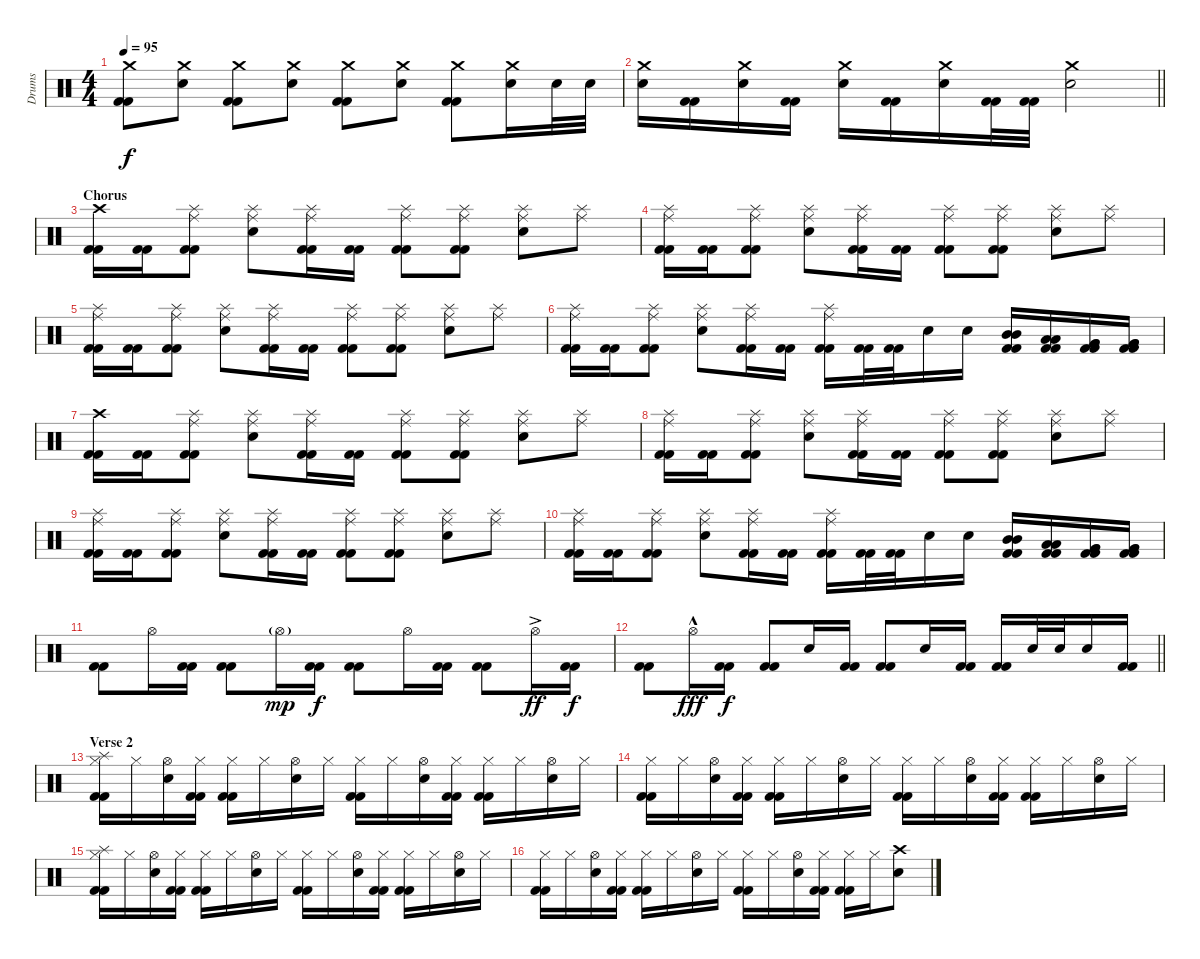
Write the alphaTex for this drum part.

\track ("Drums" "Drums") {instrument percussion}
\staff {score}
\articulation defaults
\ts (4 4)
\tempo 95
\clef neutral
\ks c
("Crash medium (hit)" "Kick (hit) 2" "Kick (hit) 2").8{dy f} ("Crash medium (hit)" "Electric Snare (hit)").8 ("Crash medium (hit)" "Kick (hit) 2" "Kick (hit) 2").8 ("Crash medium (hit)" "Electric Snare (hit)").8 ("Crash medium (hit)" "Kick (hit) 2" "Kick (hit) 2").8 ("Crash medium (hit)" "Electric Snare (hit)").8 ("Crash medium (hit)" "Kick (hit) 2" "Kick (hit) 2").8 ("Crash medium (hit)" "Electric Snare (hit)").16 "Electric Snare (hit)".32 "Electric Snare (hit)".32 |
\barLineRight lightlight
("Crash medium (hit)" "Electric Snare (hit)").16 ("Kick (hit) 2" "Kick (hit) 2").16 ("Crash medium (hit)" "Electric Snare (hit)").16 ("Kick (hit) 2" "Kick (hit) 2").16 ("Crash medium (hit)" "Electric Snare (hit)").16 ("Kick (hit) 2" "Kick (hit) 2").16 ("Crash medium (hit)" "Electric Snare (hit)").16 ("Kick (hit) 2" "Kick (hit) 2").32 ("Kick (hit) 2" "Kick (hit) 2").32 ("Crash medium (hit)" "Electric Snare (hit)").2 |
\section ("" "Chorus")
("Crash high (hit)" "Kick (hit) 2" "Kick (hit) 2").16 ("Kick (hit) 2" "Kick (hit) 2").16 ("Ride (middle)" "Splash (hit)" "Kick (hit) 2" "Kick (hit) 2").8 ("Ride (middle)" "Splash (hit)" "Electric Snare (hit)").8 ("Ride (middle)" "Splash (hit)" "Kick (hit) 2" "Kick (hit) 2").16 ("Kick (hit) 2" "Kick (hit) 2").16 ("Ride (middle)" "Splash (hit)" "Kick (hit) 2" "Kick (hit) 2").8 ("Ride (middle)" "Splash (hit)" "Kick (hit) 2" "Kick (hit) 2").8 ("Ride (middle)" "Splash (hit)" "Electric Snare (hit)").8 ("Ride (middle)" "Splash (hit)").8 |
("Ride (middle)" "Splash (hit)" "Kick (hit) 2" "Kick (hit) 2").16 ("Kick (hit) 2" "Kick (hit) 2").16 ("Ride (middle)" "Splash (hit)" "Kick (hit) 2" "Kick (hit) 2").8 ("Ride (middle)" "Splash (hit)" "Electric Snare (hit)").8 ("Ride (middle)" "Splash (hit)" "Kick (hit) 2" "Kick (hit) 2").16 ("Kick (hit) 2" "Kick (hit) 2").16 ("Ride (middle)" "Splash (hit)" "Kick (hit) 2" "Kick (hit) 2").8 ("Ride (middle)" "Splash (hit)" "Kick (hit) 2" "Kick (hit) 2").8 ("Ride (middle)" "Splash (hit)" "Electric Snare (hit)").8 ("Ride (middle)" "Splash (hit)").8 |
("Ride (middle)" "Splash (hit)" "Kick (hit) 2" "Kick (hit) 2").16 ("Kick (hit) 2" "Kick (hit) 2").16 ("Ride (middle)" "Splash (hit)" "Kick (hit) 2" "Kick (hit) 2").8 ("Ride (middle)" "Splash (hit)" "Electric Snare (hit)").8 ("Ride (middle)" "Splash (hit)" "Kick (hit) 2" "Kick (hit) 2").16 ("Kick (hit) 2" "Kick (hit) 2").16 ("Ride (middle)" "Splash (hit)" "Kick (hit) 2" "Kick (hit) 2").8 ("Ride (middle)" "Splash (hit)" "Kick (hit) 2" "Kick (hit) 2").8 ("Ride (middle)" "Splash (hit)" "Electric Snare (hit)").8 ("Ride (middle)" "Splash (hit)").8 |
("Ride (middle)" "Splash (hit)" "Kick (hit) 2" "Kick (hit) 2").16 ("Kick (hit) 2" "Kick (hit) 2").16 ("Ride (middle)" "Splash (hit)" "Kick (hit) 2" "Kick (hit) 2").8 ("Ride (middle)" "Splash (hit)" "Electric Snare (hit)").8 ("Ride (middle)" "Splash (hit)" "Kick (hit) 2" "Kick (hit) 2").16 ("Kick (hit) 2" "Kick (hit) 2").16 ("Ride (middle)" "Splash (hit)" "Kick (hit) 2" "Kick (hit) 2").16 ("Kick (hit) 2" "Kick (hit) 2").32 ("Kick (hit) 2" "Kick (hit) 2").32 "Electric Snare (hit)".16 "Electric Snare (hit)".16 ("Mid Tom (hit)" "Mid Tom (hit)" "Kick (hit) 2" "Kick (hit) 2").16 ("Low Tom (hit)" "Low Tom (hit)" "Kick (hit) 2" "Kick (hit) 2").16 ("Very Low Tom (hit)" "Very Low Tom (hit)" "Kick (hit) 2" "Kick (hit) 2").16 ("Very Low Tom (hit)" "Very Low Tom (hit)" "Kick (hit) 2" "Kick (hit) 2").16 |
("Crash high (hit)" "Kick (hit) 2" "Kick (hit) 2").16 ("Kick (hit) 2" "Kick (hit) 2").16 ("Ride (middle)" "Splash (hit)" "Kick (hit) 2" "Kick (hit) 2").8 ("Ride (middle)" "Splash (hit)" "Snare (hit) 2").8 ("Ride (middle)" "Splash (hit)" "Kick (hit) 2" "Kick (hit) 2").16 ("Kick (hit) 2" "Kick (hit) 2").16 ("Ride (middle)" "Splash (hit)" "Kick (hit) 2" "Kick (hit) 2").8 ("Ride (middle)" "Splash (hit)" "Kick (hit) 2" "Kick (hit) 2").8 ("Ride (middle)" "Splash (hit)" "Snare (hit) 2").8 ("Ride (middle)" "Splash (hit)").8 |
("Ride (middle)" "Splash (hit)" "Kick (hit) 2" "Kick (hit) 2").16 ("Kick (hit) 2" "Kick (hit) 2").16 ("Ride (middle)" "Splash (hit)" "Kick (hit) 2" "Kick (hit) 2").8 ("Ride (middle)" "Splash (hit)" "Snare (hit) 2").8 ("Ride (middle)" "Splash (hit)" "Kick (hit) 2" "Kick (hit) 2").16 ("Kick (hit) 2" "Kick (hit) 2").16 ("Ride (middle)" "Splash (hit)" "Kick (hit) 2" "Kick (hit) 2").8 ("Ride (middle)" "Splash (hit)" "Kick (hit) 2" "Kick (hit) 2").8 ("Ride (middle)" "Splash (hit)" "Snare (hit) 2").8 ("Ride (middle)" "Splash (hit)").8 |
("Ride (middle)" "Splash (hit)" "Kick (hit) 2" "Kick (hit) 2").16 ("Kick (hit) 2" "Kick (hit) 2").16 ("Ride (middle)" "Splash (hit)" "Kick (hit) 2" "Kick (hit) 2").8 ("Ride (middle)" "Splash (hit)" "Snare (hit) 2").8 ("Ride (middle)" "Splash (hit)" "Kick (hit) 2" "Kick (hit) 2").16 ("Kick (hit) 2" "Kick (hit) 2").16 ("Ride (middle)" "Splash (hit)" "Kick (hit) 2" "Kick (hit) 2").8 ("Ride (middle)" "Splash (hit)" "Kick (hit) 2" "Kick (hit) 2").8 ("Ride (middle)" "Splash (hit)" "Snare (hit) 2").8 ("Ride (middle)" "Splash (hit)").8 |
("Ride (middle)" "Splash (hit)" "Kick (hit) 2" "Kick (hit) 2").16 ("Kick (hit) 2" "Kick (hit) 2").16 ("Ride (middle)" "Splash (hit)" "Kick (hit) 2" "Kick (hit) 2").8 ("Ride (middle)" "Splash (hit)" "Snare (hit) 2").8 ("Ride (middle)" "Splash (hit)" "Kick (hit) 2" "Kick (hit) 2").16 ("Kick (hit) 2" "Kick (hit) 2").16 ("Ride (middle)" "Splash (hit)" "Kick (hit) 2" "Kick (hit) 2").16 ("Kick (hit) 2" "Kick (hit) 2").32 ("Kick (hit) 2" "Kick (hit) 2").32 "Electric Snare (hit)".16 "Electric Snare (hit)".16 ("Mid Tom (hit)" "Mid Tom (hit)" "Kick (hit) 2" "Kick (hit) 2").16 ("Low Tom (hit)" "Low Tom (hit)" "Kick (hit) 2" "Kick (hit) 2").16 ("Very Low Tom (hit)" "Very Low Tom (hit)" "Kick (hit) 2" "Kick (hit) 2").16 ("Very Low Tom (hit)" "Very Low Tom (hit)" "Kick (hit) 2" "Kick (hit) 2").16 |
("Kick (hit) 2" "Kick (hit) 2").8 "Hi-Hat (open)".16 ("Kick (hit) 2" "Kick (hit) 2").16 ("Kick (hit) 2" "Kick (hit) 2").8 "Hi-Hat (open)"{g}.16{dy mp} ("Kick (hit) 2" "Kick (hit) 2").16{dy f} ("Kick (hit) 2" "Kick (hit) 2").8 "Hi-Hat (open)".16 ("Kick (hit) 2" "Kick (hit) 2").16 ("Kick (hit) 2" "Kick (hit) 2").8 "Hi-Hat (open)"{ac}.16{dy ff} ("Kick (hit) 2" "Kick (hit) 2").16{dy f} |
\barLineRight lightlight
("Kick (hit) 2" "Kick (hit) 2").8 "Hi-Hat (open)"{hac}.16{dy fff} ("Kick (hit) 2" "Kick (hit) 2").16{dy f} ("Kick (hit) 2" "Kick (hit) 2").8 "Electric Snare (hit)".16 ("Kick (hit) 2" "Kick (hit) 2").16 ("Kick (hit) 2" "Kick (hit) 2").8 "Electric Snare (hit)".16 ("Kick (hit) 2" "Kick (hit) 2").16 ("Kick (hit) 2" "Kick (hit) 2").16 "Electric Snare (hit)".32 "Electric Snare (hit)".32 "Electric Snare (hit)".16 ("Kick (hit) 2" "Kick (hit) 2").16 |
\section ("" "Verse 2")
("Splash (hit)" "Hi-Hat (closed)" "Kick (hit) 2" "Kick (hit) 2").16 "Hi-Hat (closed)".16 ("Hi-Hat (open)" "Electric Snare (hit)").16 ("Hi-Hat (closed)" "Kick (hit) 2" "Kick (hit) 2").16 ("Hi-Hat (closed)" "Kick (hit) 2" "Kick (hit) 2").16 "Hi-Hat (closed)".16 ("Hi-Hat (open)" "Electric Snare (hit)").16 "Hi-Hat (closed)".16 ("Hi-Hat (closed)" "Kick (hit) 2" "Kick (hit) 2").16 "Hi-Hat (closed)".16 ("Hi-Hat (open)" "Electric Snare (hit)").16 ("Hi-Hat (closed)" "Kick (hit) 2" "Kick (hit) 2").16 ("Hi-Hat (closed)" "Kick (hit) 2" "Kick (hit) 2").16 "Hi-Hat (closed)".16 ("Hi-Hat (open)" "Electric Snare (hit)").16 "Hi-Hat (closed)".16 |
("Hi-Hat (closed)" "Kick (hit) 2" "Kick (hit) 2").16 "Hi-Hat (closed)".16 ("Hi-Hat (open)" "Electric Snare (hit)").16 ("Hi-Hat (closed)" "Kick (hit) 2" "Kick (hit) 2").16 ("Hi-Hat (closed)" "Kick (hit) 2" "Kick (hit) 2").16 "Hi-Hat (closed)".16 ("Hi-Hat (open)" "Electric Snare (hit)").16 "Hi-Hat (closed)".16 ("Hi-Hat (closed)" "Kick (hit) 2" "Kick (hit) 2").16 "Hi-Hat (closed)".16 ("Hi-Hat (open)" "Electric Snare (hit)").16 ("Hi-Hat (closed)" "Kick (hit) 2" "Kick (hit) 2").16 ("Hi-Hat (closed)" "Kick (hit) 2" "Kick (hit) 2").16 "Hi-Hat (closed)".16 ("Hi-Hat (open)" "Electric Snare (hit)").16 "Hi-Hat (closed)".16 |
("Splash (hit)" "Hi-Hat (closed)" "Kick (hit) 2" "Kick (hit) 2").16 "Hi-Hat (closed)".16 ("Hi-Hat (open)" "Electric Snare (hit)").16 ("Hi-Hat (closed)" "Kick (hit) 2" "Kick (hit) 2").16 ("Hi-Hat (closed)" "Kick (hit) 2" "Kick (hit) 2").16 "Hi-Hat (closed)".16 ("Hi-Hat (open)" "Electric Snare (hit)").16 "Hi-Hat (closed)".16 ("Hi-Hat (closed)" "Kick (hit) 2" "Kick (hit) 2").16 "Hi-Hat (closed)".16 ("Hi-Hat (open)" "Electric Snare (hit)").16 ("Hi-Hat (closed)" "Kick (hit) 2" "Kick (hit) 2").16 ("Hi-Hat (closed)" "Kick (hit) 2" "Kick (hit) 2").16 "Hi-Hat (closed)".16 ("Hi-Hat (open)" "Electric Snare (hit)").16 "Hi-Hat (closed)".16 |
("Hi-Hat (closed)" "Kick (hit) 2" "Kick (hit) 2").16 "Hi-Hat (closed)".16 ("Hi-Hat (open)" "Electric Snare (hit)").16 ("Hi-Hat (closed)" "Kick (hit) 2" "Kick (hit) 2").16 ("Hi-Hat (closed)" "Kick (hit) 2" "Kick (hit) 2").16 "Hi-Hat (closed)".16 ("Hi-Hat (open)" "Electric Snare (hit)").16 "Hi-Hat (closed)".16 ("Hi-Hat (closed)" "Kick (hit) 2" "Kick (hit) 2").16 "Hi-Hat (closed)".16 ("Hi-Hat (open)" "Electric Snare (hit)").16 ("Hi-Hat (closed)" "Kick (hit) 2" "Kick (hit) 2").16 ("Hi-Hat (closed)" "Kick (hit) 2" "Kick (hit) 2").16 "Hi-Hat (closed)".16 ("Crash high (hit)" "Electric Snare (hit)").8
